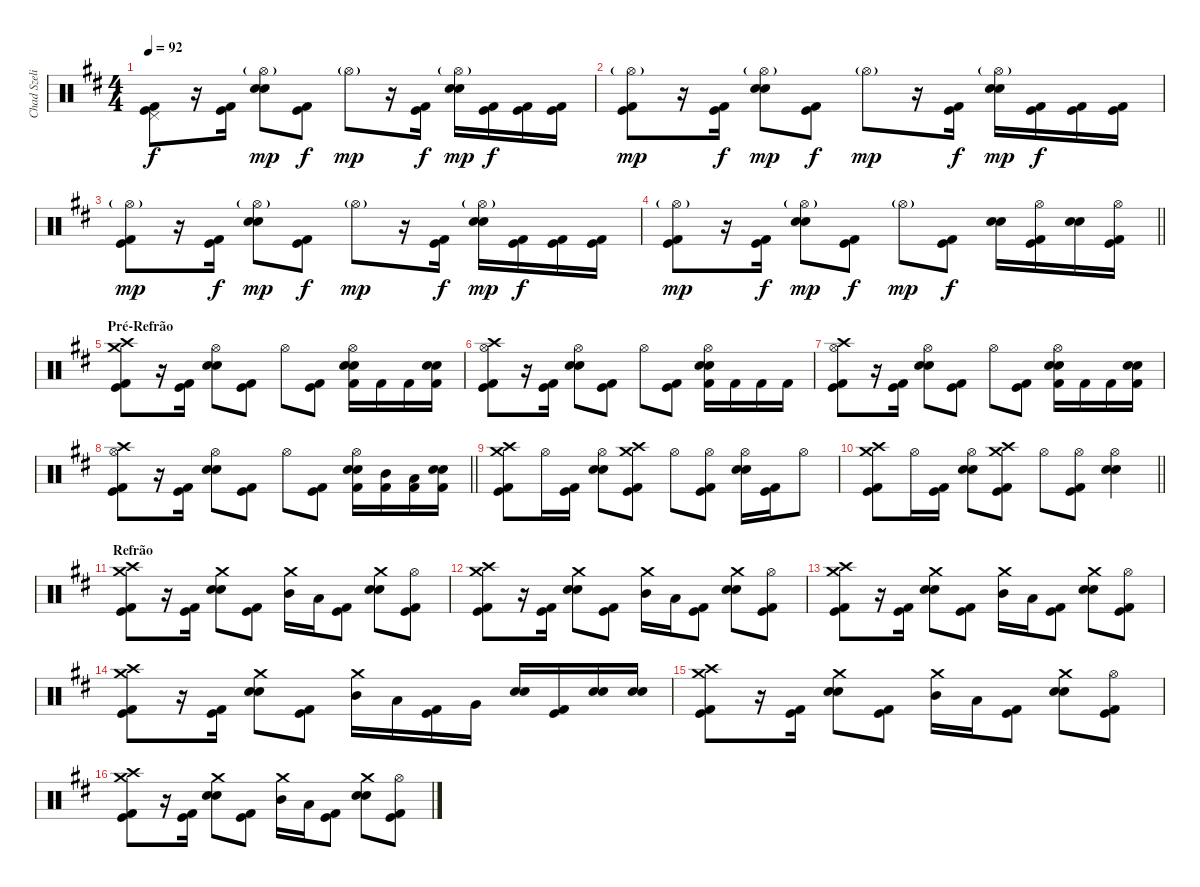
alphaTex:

\track ("Chad Szeliga" "Chad Szeli") {instrument percussion}
\staff {score}
\articulation defaults
\ts (4 4)
\tempo 92
\clef neutral
\ks d
("Kick (hit) 2" "Kick (hit)" "Pedal Hi-Hat (hit)").8{dy f} r.16 ("Kick (hit) 2" "Kick (hit)").16{beam Down} ("Snare (hit) 2" "Snare (hit) 2" "Hi-Hat (open)"{g}).8{dy mp} ("Kick (hit) 2" "Kick (hit)").8{dy f} "Hi-Hat (open)"{g}.8{dy mp} r.16 ("Kick (hit) 2" "Kick (hit)").16{dy f beam Down} ("Snare (hit) 2" "Snare (hit) 2" "Hi-Hat (open)"{g}).16{dy mp} ("Kick (hit) 2" "Kick (hit)").16{dy f} ("Kick (hit) 2" "Kick (hit)").16 ("Kick (hit) 2" "Kick (hit)").16 |
("Kick (hit) 2" "Kick (hit)" "Hi-Hat (open)"{g}).8{dy mp} r.16 ("Kick (hit) 2" "Kick (hit)").16{dy f beam Down} ("Snare (hit) 2" "Snare (hit) 2" "Hi-Hat (open)"{g}).8{dy mp} ("Kick (hit) 2" "Kick (hit)").8{dy f} "Hi-Hat (open)"{g}.8{dy mp} r.16 ("Kick (hit) 2" "Kick (hit)").16{dy f beam Down} ("Snare (hit) 2" "Snare (hit) 2" "Hi-Hat (open)"{g}).16{dy mp} ("Kick (hit) 2" "Kick (hit)").16{dy f} ("Kick (hit) 2" "Kick (hit)").16 ("Kick (hit) 2" "Kick (hit)").16 |
("Kick (hit) 2" "Kick (hit)" "Hi-Hat (open)"{g}).8{dy mp} r.16 ("Kick (hit) 2" "Kick (hit)").16{dy f beam Down} ("Snare (hit) 2" "Snare (hit) 2" "Hi-Hat (open)"{g}).8{dy mp} ("Kick (hit) 2" "Kick (hit)").8{dy f} "Hi-Hat (open)"{g}.8{dy mp} r.16 ("Kick (hit) 2" "Kick (hit)").16{dy f beam Down} ("Snare (hit) 2" "Snare (hit) 2" "Hi-Hat (open)"{g}).16{dy mp} ("Kick (hit) 2" "Kick (hit)").16{dy f} ("Kick (hit) 2" "Kick (hit)").16 ("Kick (hit) 2" "Kick (hit)").16 |
\barLineRight lightlight
("Kick (hit) 2" "Kick (hit)" "Hi-Hat (open)"{g}).8{dy mp} r.16 ("Kick (hit) 2" "Kick (hit)").16{dy f beam Down} ("Snare (hit) 2" "Snare (hit) 2" "Hi-Hat (open)"{g}).8{dy mp} ("Kick (hit) 2" "Kick (hit)").8{dy f} "Hi-Hat (open)"{g}.8{dy mp} ("Kick (hit) 2" "Kick (hit)").8{dy f} ("Snare (hit) 2" "Snare (hit) 2").16 ("Kick (hit) 2" "Kick (hit)" "Hi-Hat (open)").16 ("Snare (hit) 2" "Snare (hit) 2").16 ("Kick (hit) 2" "Kick (hit)" "Hi-Hat (open)").16 |
\section ("" "Pré-Refrão")
("Crash high (hit)" "Kick (hit) 2" "Kick (hit)" "Crash medium (hit)").8 r.16 ("Kick (hit) 2" "Kick (hit)").16{beam Down} ("Snare (hit) 2" "Snare (hit) 2" "Hi-Hat (open)").8 ("Kick (hit) 2" "Kick (hit)").8 "Hi-Hat (open)".8 ("Kick (hit) 2" "Kick (hit)").8 ("Kick (hit) 2" "Snare (hit) 2" "Snare (hit) 2" "Hi-Hat (open)").16 "Kick (hit) 2".16 "Kick (hit) 2".16 ("Kick (hit) 2" "Snare (hit) 2" "Snare (hit) 2").16 |
("Crash high (hit)" "Kick (hit) 2" "Kick (hit)" "Hi-Hat (open)").8 r.16 ("Kick (hit) 2" "Kick (hit)").16{beam Down} ("Snare (hit) 2" "Snare (hit) 2" "Hi-Hat (open)").8 ("Kick (hit) 2" "Kick (hit)").8 "Hi-Hat (open)".8 ("Kick (hit) 2" "Kick (hit)").8 ("Kick (hit) 2" "Snare (hit) 2" "Snare (hit) 2" "Hi-Hat (open)").16 "Kick (hit) 2".16 "Kick (hit) 2".16 "Kick (hit) 2".16 |
("Crash high (hit)" "Kick (hit) 2" "Kick (hit)" "Hi-Hat (open)").8 r.16 ("Kick (hit) 2" "Kick (hit)").16{beam Down} ("Snare (hit) 2" "Snare (hit) 2" "Hi-Hat (open)").8 ("Kick (hit) 2" "Kick (hit)").8 "Hi-Hat (open)".8 ("Kick (hit) 2" "Kick (hit)").8 ("Kick (hit) 2" "Snare (hit) 2" "Snare (hit) 2" "Hi-Hat (open)").16 "Kick (hit) 2".16 "Kick (hit) 2".16 ("Kick (hit) 2" "Snare (hit) 2" "Snare (hit) 2").16 |
\barLineRight lightlight
("Crash high (hit)" "Kick (hit) 2" "Kick (hit)" "Hi-Hat (open)").8 r.16 ("Kick (hit) 2" "Kick (hit)").16{beam Down} ("Snare (hit) 2" "Snare (hit) 2" "Hi-Hat (open)").8 ("Kick (hit) 2" "Kick (hit)").8 "Hi-Hat (open)".8 ("Kick (hit) 2" "Kick (hit)").8 ("Kick (hit) 2" "Snare (hit) 2" "Snare (hit) 2" "Hi-Hat (open)").16 ("Kick (hit) 2" "Mid Tom (hit)").16 ("Kick (hit) 2" "Low Tom (hit)").16 ("Kick (hit) 2" "Snare (hit) 2" "Snare (hit) 2").16 |
\section ("" "")
("Crash high (hit)" "Kick (hit) 2" "Kick (hit)" "Crash medium (hit)").8 "Hi-Hat (open)".16 ("Kick (hit) 2" "Kick (hit)").16 ("Snare (hit) 2" "Snare (hit) 2" "Hi-Hat (open)").8 ("Crash high (hit)" "Kick (hit) 2" "Kick (hit)" "Crash medium (hit)").8 "Hi-Hat (open)".8 ("Kick (hit) 2" "Kick (hit)" "Hi-Hat (open)").8 ("Snare (hit) 2" "Snare (hit) 2" "Hi-Hat (open)").16 ("Kick (hit) 2" "Kick (hit)").16 "Hi-Hat (open)".8 |
\barLineRight lightlight
("Crash high (hit)" "Kick (hit) 2" "Kick (hit)" "Crash medium (hit)").8 "Hi-Hat (open)".16 ("Kick (hit) 2" "Kick (hit)").16 ("Snare (hit) 2" "Snare (hit) 2" "Hi-Hat (open)").8 ("Crash high (hit)" "Kick (hit) 2" "Kick (hit)" "Crash medium (hit)").8 "Hi-Hat (open)".8 ("Kick (hit) 2" "Kick (hit)" "Hi-Hat (open)").8 ("Snare (hit) 2" "Snare (hit) 2" "Hi-Hat (open)").4 |
\section ("" "Refrão")
("Crash high (hit)" "Kick (hit) 2" "Kick (hit)" "Crash medium (hit)").8 r.16 ("Kick (hit) 2" "Kick (hit)").16{beam Down} ("Crash medium (hit)" "Snare (hit) 2" "Snare (hit) 2").8 ("Kick (hit) 2" "Kick (hit)").8 ("Crash medium (hit)" "Mid Tom (hit)").16 "Low Tom (hit)".16 ("Kick (hit) 2" "Kick (hit)").8 ("Crash medium (hit)" "Snare (hit) 2" "Snare (hit) 2").8 ("Kick (hit) 2" "Kick (hit)" "Hi-Hat (open)").8 |
("Crash high (hit)" "Kick (hit) 2" "Kick (hit)" "Crash medium (hit)").8 r.16 ("Kick (hit) 2" "Kick (hit)").16{beam Down} ("Crash medium (hit)" "Snare (hit) 2" "Snare (hit) 2").8 ("Kick (hit) 2" "Kick (hit)").8 ("Crash medium (hit)" "Mid Tom (hit)").16 "Low Tom (hit)".16 ("Kick (hit) 2" "Kick (hit)").8 ("Crash medium (hit)" "Snare (hit) 2" "Snare (hit) 2").8 ("Kick (hit) 2" "Kick (hit)" "Hi-Hat (open)").8 |
("Crash high (hit)" "Kick (hit) 2" "Kick (hit)" "Crash medium (hit)").8 r.16 ("Kick (hit) 2" "Kick (hit)").16{beam Down} ("Crash medium (hit)" "Snare (hit) 2" "Snare (hit) 2").8 ("Kick (hit) 2" "Kick (hit)").8 ("Crash medium (hit)" "Mid Tom (hit)").16 "Low Tom (hit)".16 ("Kick (hit) 2" "Kick (hit)").8 ("Crash medium (hit)" "Snare (hit) 2" "Snare (hit) 2").8 ("Kick (hit) 2" "Kick (hit)" "Hi-Hat (open)").8 |
("Crash high (hit)" "Kick (hit) 2" "Kick (hit)" "Crash medium (hit)").8 r.16 ("Kick (hit) 2" "Kick (hit)").16{beam Down} ("Crash medium (hit)" "Snare (hit) 2" "Snare (hit) 2").8 ("Kick (hit) 2" "Kick (hit)").8 ("Crash medium (hit)" "Mid Tom (hit)").16 "Low Tom (hit)".16 ("Kick (hit) 2" "Kick (hit)").16 "Very Low Tom (hit)".16 ("Snare (hit) 2" "Snare (hit) 2").16 ("Kick (hit) 2" "Kick (hit)").16 ("Snare (hit) 2" "Snare (hit) 2").16 ("Snare (hit) 2" "Snare (hit) 2").16 |
("Crash high (hit)" "Kick (hit) 2" "Kick (hit)" "Crash medium (hit)").8 r.16 ("Kick (hit) 2" "Kick (hit)").16{beam Down} ("Crash medium (hit)" "Snare (hit) 2" "Snare (hit) 2").8 ("Kick (hit) 2" "Kick (hit)").8 ("Crash medium (hit)" "Mid Tom (hit)").16 "Low Tom (hit)".16 ("Kick (hit) 2" "Kick (hit)").8 ("Crash medium (hit)" "Snare (hit) 2" "Snare (hit) 2").8 ("Kick (hit) 2" "Kick (hit)" "Hi-Hat (open)").8 |
("Crash high (hit)" "Kick (hit) 2" "Kick (hit)" "Crash medium (hit)").8 r.16 ("Kick (hit) 2" "Kick (hit)").16{beam Down} ("Crash medium (hit)" "Snare (hit) 2" "Snare (hit) 2").8 ("Kick (hit) 2" "Kick (hit)").8 ("Crash medium (hit)" "Mid Tom (hit)").16 "Low Tom (hit)".16 ("Kick (hit) 2" "Kick (hit)").8 ("Crash medium (hit)" "Snare (hit) 2" "Snare (hit) 2").8 ("Kick (hit) 2" "Kick (hit)" "Hi-Hat (open)").8
